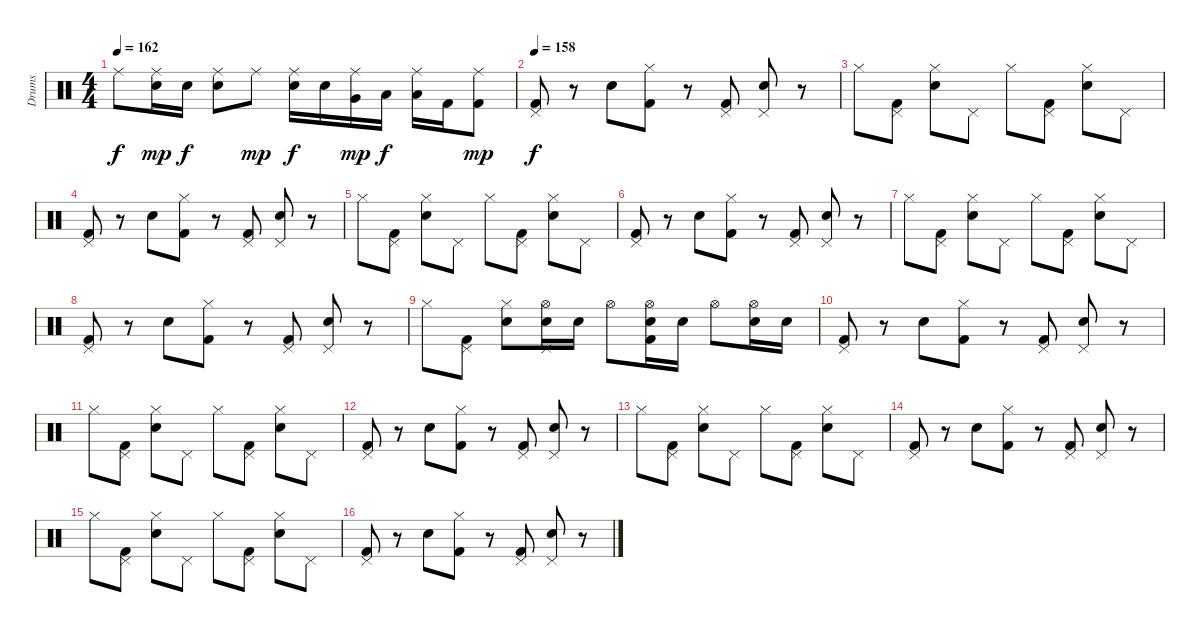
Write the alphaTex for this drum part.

\track ("Drums" "Drums") {instrument percussion}
\staff {score}
\articulation defaults
\ts (4 4)
\tempo 162
\clef neutral
\ks c "Ride (middle)".8{dy f}
("Electric Snare (hit)" "Ride (middle)").16{dy mp} "Electric Snare (hit)".16{dy f} ("Electric Snare (hit)" "Ride (middle)").8 "Ride (middle)".8{dy mp} ("Electric Snare (hit)" "Ride (middle)").16{dy f} "Electric Snare (hit)".16 ("Very Low Tom (hit)" "Ride (middle)").16{dy mp} "Low Floor Tom (hit)".16{dy f} ("Low Floor Tom (hit)" "Ride (middle)").16 "Kick (hit) 2".16 ("Kick (hit) 2" "Ride (middle)").8{dy mp} |
\tempo 158
("Kick (hit) 2" "Pedal Hi-Hat (hit)").8{dy f} r.8 "Electric Snare (hit)".8 ("Kick (hit) 2" "Hi-Hat (closed)").8 r.8 ("Kick (hit) 2" "Pedal Hi-Hat (hit)").8 ("Pedal Hi-Hat (hit)" "Electric Snare (hit)").8 r.8 |
"Hi-Hat (closed)".8 ("Kick (hit) 2" "Pedal Hi-Hat (hit)").8 ("Electric Snare (hit)" "Hi-Hat (closed)").8 "Pedal Hi-Hat (hit)".8 "Hi-Hat (closed)".8 ("Kick (hit) 2" "Pedal Hi-Hat (hit)").8 ("Electric Snare (hit)" "Hi-Hat (closed)").8 "Pedal Hi-Hat (hit)".8 |
("Kick (hit) 2" "Pedal Hi-Hat (hit)").8 r.8 "Electric Snare (hit)".8 ("Kick (hit) 2" "Hi-Hat (closed)").8 r.8 ("Kick (hit) 2" "Pedal Hi-Hat (hit)").8 ("Pedal Hi-Hat (hit)" "Electric Snare (hit)").8 r.8 |
"Hi-Hat (closed)".8 ("Kick (hit) 2" "Pedal Hi-Hat (hit)").8 ("Electric Snare (hit)" "Hi-Hat (closed)").8 "Pedal Hi-Hat (hit)".8 "Hi-Hat (closed)".8 ("Kick (hit) 2" "Pedal Hi-Hat (hit)").8 ("Electric Snare (hit)" "Hi-Hat (closed)").8 "Pedal Hi-Hat (hit)".8 |
("Kick (hit) 2" "Pedal Hi-Hat (hit)").8 r.8 "Electric Snare (hit)".8 ("Kick (hit) 2" "Hi-Hat (closed)").8 r.8 ("Kick (hit) 2" "Pedal Hi-Hat (hit)").8 ("Pedal Hi-Hat (hit)" "Electric Snare (hit)").8 r.8 |
"Hi-Hat (closed)".8 ("Kick (hit) 2" "Pedal Hi-Hat (hit)").8 ("Electric Snare (hit)" "Hi-Hat (closed)").8 "Pedal Hi-Hat (hit)".8 "Hi-Hat (closed)".8 ("Kick (hit) 2" "Pedal Hi-Hat (hit)").8 ("Electric Snare (hit)" "Hi-Hat (closed)").8 "Pedal Hi-Hat (hit)".8 |
("Kick (hit) 2" "Pedal Hi-Hat (hit)").8 r.8 "Electric Snare (hit)".8 ("Kick (hit) 2" "Hi-Hat (closed)").8 r.8 ("Kick (hit) 2" "Pedal Hi-Hat (hit)").8 ("Pedal Hi-Hat (hit)" "Electric Snare (hit)").8 r.8 |
"Hi-Hat (closed)".8 ("Kick (hit) 2" "Pedal Hi-Hat (hit)").8 ("Electric Snare (hit)" "Hi-Hat (closed)").8 ("Hi-Hat (open)" "Electric Snare (hit)" "Pedal Hi-Hat (hit)").16 "Electric Snare (hit)".16 "Hi-Hat (open)".8 ("Hi-Hat (open)" "Electric Snare (hit)" "Kick (hit) 2").16 "Electric Snare (hit)".16 "Hi-Hat (open)".8 ("Hi-Hat (open)" "Electric Snare (hit)").16 "Electric Snare (hit)".16 |
("Kick (hit) 2" "Pedal Hi-Hat (hit)").8 r.8 "Electric Snare (hit)".8 ("Kick (hit) 2" "Hi-Hat (closed)").8 r.8 ("Kick (hit) 2" "Pedal Hi-Hat (hit)").8 ("Pedal Hi-Hat (hit)" "Electric Snare (hit)").8 r.8 |
"Hi-Hat (closed)".8 ("Kick (hit) 2" "Pedal Hi-Hat (hit)").8 ("Electric Snare (hit)" "Hi-Hat (closed)").8 "Pedal Hi-Hat (hit)".8 "Hi-Hat (closed)".8 ("Kick (hit) 2" "Pedal Hi-Hat (hit)").8 ("Electric Snare (hit)" "Hi-Hat (closed)").8 "Pedal Hi-Hat (hit)".8 |
("Kick (hit) 2" "Pedal Hi-Hat (hit)").8 r.8 "Electric Snare (hit)".8 ("Kick (hit) 2" "Hi-Hat (closed)").8 r.8 ("Kick (hit) 2" "Pedal Hi-Hat (hit)").8 ("Pedal Hi-Hat (hit)" "Electric Snare (hit)").8 r.8 |
"Hi-Hat (closed)".8 ("Kick (hit) 2" "Pedal Hi-Hat (hit)").8 ("Electric Snare (hit)" "Hi-Hat (closed)").8 "Pedal Hi-Hat (hit)".8 "Hi-Hat (closed)".8 ("Kick (hit) 2" "Pedal Hi-Hat (hit)").8 ("Electric Snare (hit)" "Hi-Hat (closed)").8 "Pedal Hi-Hat (hit)".8 |
("Kick (hit) 2" "Pedal Hi-Hat (hit)").8 r.8 "Electric Snare (hit)".8 ("Kick (hit) 2" "Hi-Hat (closed)").8 r.8 ("Kick (hit) 2" "Pedal Hi-Hat (hit)").8 ("Pedal Hi-Hat (hit)" "Electric Snare (hit)").8 r.8 |
"Hi-Hat (closed)".8 ("Kick (hit) 2" "Pedal Hi-Hat (hit)").8 ("Electric Snare (hit)" "Hi-Hat (closed)").8 "Pedal Hi-Hat (hit)".8 "Hi-Hat (closed)".8 ("Kick (hit) 2" "Pedal Hi-Hat (hit)").8 ("Electric Snare (hit)" "Hi-Hat (closed)").8 "Pedal Hi-Hat (hit)".8 |
("Kick (hit) 2" "Pedal Hi-Hat (hit)").8 r.8 "Electric Snare (hit)".8 ("Kick (hit) 2" "Hi-Hat (closed)").8 r.8 ("Kick (hit) 2" "Pedal Hi-Hat (hit)").8 ("Pedal Hi-Hat (hit)" "Electric Snare (hit)").8 r.8
